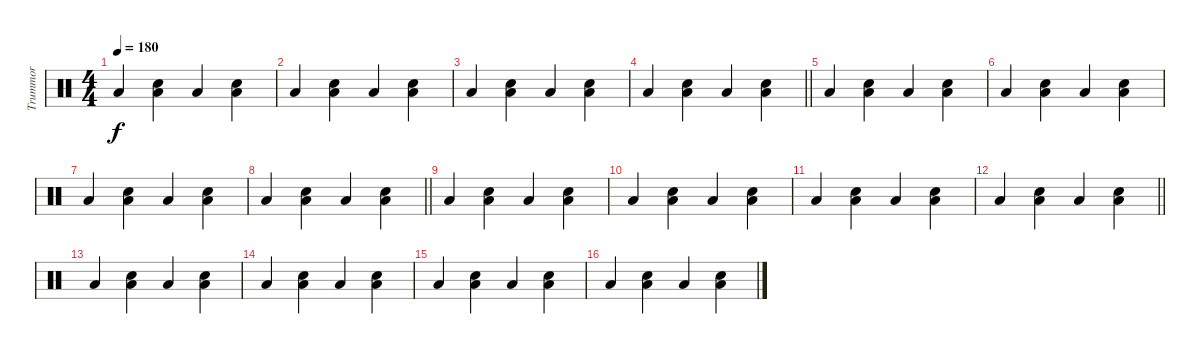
\track ("Trummor" "Trummor") {instrument percussion}
\staff {score}
\articulation defaults
\ts (4 4)
\tempo 180
\clef neutral
\ks c "Low Tom (hit)".4{dy f}
("Low Tom (hit)" "Snare (hit) 2").4 "Low Tom (hit)".4 ("Low Tom (hit)" "Snare (hit) 2").4 |
"Low Tom (hit)".4 ("Low Tom (hit)" "Snare (hit) 2").4 "Low Tom (hit)".4 ("Low Tom (hit)" "Snare (hit) 2").4 |
"Low Tom (hit)".4 ("Low Tom (hit)" "Snare (hit) 2").4 "Low Tom (hit)".4 ("Low Tom (hit)" "Snare (hit) 2").4 |
\barLineRight lightlight "Low Tom (hit)".4
("Low Tom (hit)" "Snare (hit) 2").4 "Low Tom (hit)".4 ("Low Tom (hit)" "Snare (hit) 2").4 |
"Low Tom (hit)".4 ("Low Tom (hit)" "Snare (hit) 2").4 "Low Tom (hit)".4 ("Low Tom (hit)" "Snare (hit) 2").4 |
"Low Tom (hit)".4 ("Low Tom (hit)" "Snare (hit) 2").4 "Low Tom (hit)".4 ("Low Tom (hit)" "Snare (hit) 2").4 |
"Low Tom (hit)".4 ("Low Tom (hit)" "Snare (hit) 2").4 "Low Tom (hit)".4 ("Low Tom (hit)" "Snare (hit) 2").4 |
\barLineRight lightlight "Low Tom (hit)".4
("Low Tom (hit)" "Snare (hit) 2").4 "Low Tom (hit)".4 ("Low Tom (hit)" "Snare (hit) 2").4 |
"Low Tom (hit)".4 ("Low Tom (hit)" "Snare (hit) 2").4 "Low Tom (hit)".4 ("Low Tom (hit)" "Snare (hit) 2").4 |
"Low Tom (hit)".4 ("Low Tom (hit)" "Snare (hit) 2").4 "Low Tom (hit)".4 ("Low Tom (hit)" "Snare (hit) 2").4 |
"Low Tom (hit)".4 ("Low Tom (hit)" "Snare (hit) 2").4 "Low Tom (hit)".4 ("Low Tom (hit)" "Snare (hit) 2").4 |
\barLineRight lightlight "Low Tom (hit)".4
("Low Tom (hit)" "Snare (hit) 2").4 "Low Tom (hit)".4 ("Low Tom (hit)" "Snare (hit) 2").4 |
"Low Tom (hit)".4 ("Low Tom (hit)" "Snare (hit) 2").4 "Low Tom (hit)".4 ("Low Tom (hit)" "Snare (hit) 2").4 |
"Low Tom (hit)".4 ("Low Tom (hit)" "Snare (hit) 2").4 "Low Tom (hit)".4 ("Low Tom (hit)" "Snare (hit) 2").4 |
"Low Tom (hit)".4 ("Low Tom (hit)" "Snare (hit) 2").4 "Low Tom (hit)".4 ("Low Tom (hit)" "Snare (hit) 2").4 |
"Low Tom (hit)".4 ("Low Tom (hit)" "Snare (hit) 2").4 "Low Tom (hit)".4 ("Low Tom (hit)" "Snare (hit) 2").4
